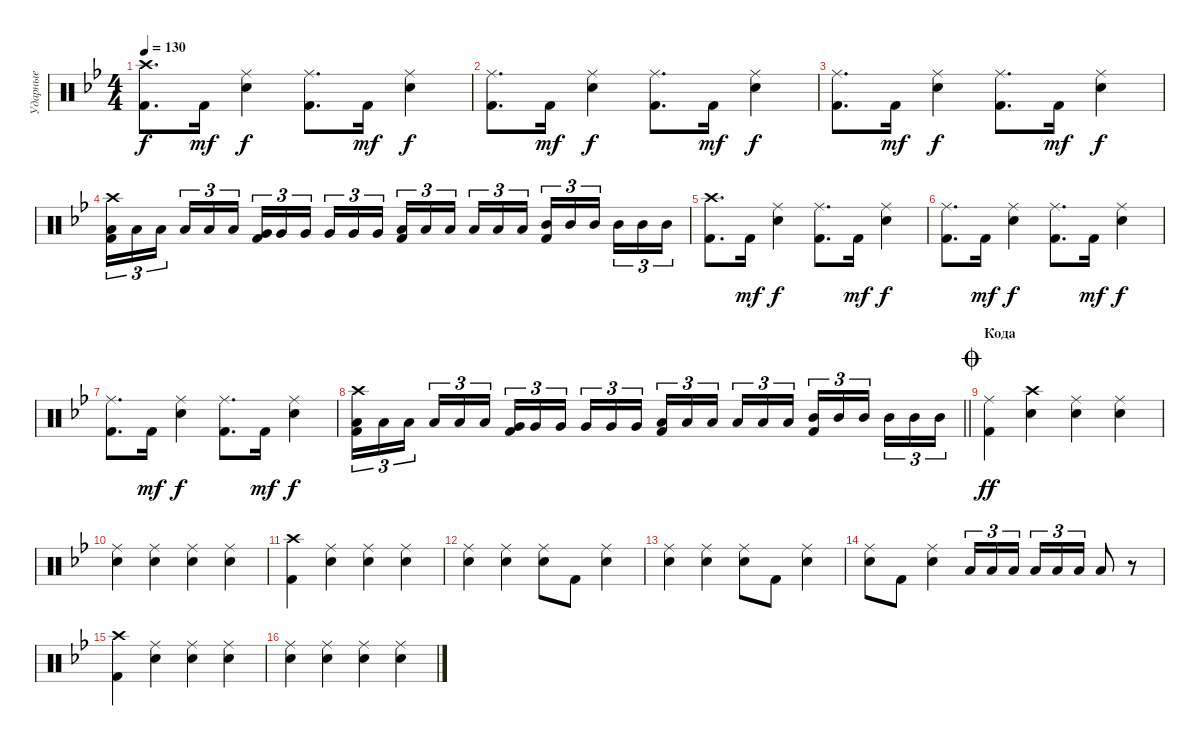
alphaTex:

\track ("Ударные" "Ударные") {instrument percussion}
\staff {score}
\articulation defaults
\ts (4 4)
\tempo 130
\clef neutral
\ks gminor
("Crash high (hit)" "Kick (hit) 2").8{d dy f} "Kick (hit) 2".16{dy mf} ("Ride (middle)" "Snare (hit) 2").4{dy f} ("Ride (middle)" "Kick (hit) 2").8{d} "Kick (hit) 2".16{dy mf} ("Ride (middle)" "Snare (hit) 2").4{dy f} |
("Ride (middle)" "Kick (hit) 2").8{d} "Kick (hit) 2".16{dy mf} ("Ride (middle)" "Snare (hit) 2").4{dy f} ("Ride (middle)" "Kick (hit) 2").8{d} "Kick (hit) 2".16{dy mf} ("Ride (middle)" "Snare (hit) 2").4{dy f} |
("Ride (middle)" "Kick (hit) 2").8{d} "Kick (hit) 2".16{dy mf} ("Ride (middle)" "Snare (hit) 2").4{dy f} ("Ride (middle)" "Kick (hit) 2").8{d} "Kick (hit) 2".16{dy mf} ("Ride (middle)" "Snare (hit) 2").4{dy f} |
("Crash high (hit)" "Low Floor Tom (hit)" "Kick (hit) 2").16{tu (3 2)} "Low Floor Tom (hit)".16{tu (3 2)} "Low Floor Tom (hit)".16{tu (3 2) beam splitsecondary} "Low Floor Tom (hit)".16{tu (3 2)} "Low Floor Tom (hit)".16{tu (3 2)} "Low Floor Tom (hit)".16{tu (3 2)} ("Very Low Tom (hit)" "Kick (hit) 2").16{tu (3 2)} "Very Low Tom (hit)".16{tu (3 2)} "Very Low Tom (hit)".16{tu (3 2) beam splitsecondary} "Very Low Tom (hit)".16{tu (3 2)} "Very Low Tom (hit)".16{tu (3 2)} "Very Low Tom (hit)".16{tu (3 2)} ("Low Tom (hit)" "Kick (hit) 2").16{tu (3 2)} "Low Tom (hit)".16{tu (3 2)} "Low Tom (hit)".16{tu (3 2) beam splitsecondary} "Low Tom (hit)".16{tu (3 2)} "Low Tom (hit)".16{tu (3 2)} "Low Tom (hit)".16{tu (3 2)} ("Mid Tom (hit)" "Kick (hit) 2").16{tu (3 2)} "Mid Tom (hit)".16{tu (3 2)} "Mid Tom (hit)".16{tu (3 2) beam splitsecondary} "Mid Tom (hit)".16{tu (3 2)} "Mid Tom (hit)".16{tu (3 2)} "Mid Tom (hit)".16{tu (3 2)} |
("Crash high (hit)" "Kick (hit) 2").8{d} "Kick (hit) 2".16{dy mf} ("Ride (middle)" "Snare (hit) 2").4{dy f} ("Ride (middle)" "Kick (hit) 2").8{d} "Kick (hit) 2".16{dy mf} ("Ride (middle)" "Snare (hit) 2").4{dy f} |
("Ride (middle)" "Kick (hit) 2").8{d} "Kick (hit) 2".16{dy mf} ("Ride (middle)" "Snare (hit) 2").4{dy f} ("Ride (middle)" "Kick (hit) 2").8{d} "Kick (hit) 2".16{dy mf} ("Ride (middle)" "Snare (hit) 2").4{dy f} |
("Ride (middle)" "Kick (hit) 2").8{d} "Kick (hit) 2".16{dy mf} ("Ride (middle)" "Snare (hit) 2").4{dy f} ("Ride (middle)" "Kick (hit) 2").8{d} "Kick (hit) 2".16{dy mf} ("Ride (middle)" "Snare (hit) 2").4{dy f} |
\barLineRight lightlight
("Crash high (hit)" "Low Floor Tom (hit)" "Kick (hit) 2").16{tu (3 2)} "Low Floor Tom (hit)".16{tu (3 2)} "Low Floor Tom (hit)".16{tu (3 2) beam splitsecondary} "Low Floor Tom (hit)".16{tu (3 2)} "Low Floor Tom (hit)".16{tu (3 2)} "Low Floor Tom (hit)".16{tu (3 2)} ("Very Low Tom (hit)" "Kick (hit) 2").16{tu (3 2)} "Very Low Tom (hit)".16{tu (3 2)} "Very Low Tom (hit)".16{tu (3 2) beam splitsecondary} "Very Low Tom (hit)".16{tu (3 2)} "Very Low Tom (hit)".16{tu (3 2)} "Very Low Tom (hit)".16{tu (3 2)} ("Low Tom (hit)" "Kick (hit) 2").16{tu (3 2)} "Low Tom (hit)".16{tu (3 2)} "Low Tom (hit)".16{tu (3 2) beam splitsecondary} "Low Tom (hit)".16{tu (3 2)} "Low Tom (hit)".16{tu (3 2)} "Low Tom (hit)".16{tu (3 2)} ("Mid Tom (hit)" "Kick (hit) 2").16{tu (3 2)} "Mid Tom (hit)".16{tu (3 2)} "Mid Tom (hit)".16{tu (3 2) beam splitsecondary} "Mid Tom (hit)".16{tu (3 2)} "Mid Tom (hit)".16{tu (3 2)} "Mid Tom (hit)".16{tu (3 2)} |
\section ("" "Кода")
\jump coda
("Ride (middle)" "Kick (hit) 2").4{dy ff} ("Crash high (hit)" "Snare (hit) 2").4 ("Ride (middle)" "Snare (hit) 2").4 ("Ride (middle)" "Snare (hit) 2").4 |
("Ride (middle)" "Snare (hit) 2").4 ("Ride (middle)" "Snare (hit) 2").4 ("Ride (middle)" "Snare (hit) 2").4 ("Ride (middle)" "Snare (hit) 2").4 |
("Crash high (hit)" "Kick (hit) 2").4 ("Ride (middle)" "Snare (hit) 2").4 ("Ride (middle)" "Snare (hit) 2").4 ("Ride (middle)" "Snare (hit) 2").4 |
("Ride (middle)" "Snare (hit) 2").4 ("Ride (middle)" "Snare (hit) 2").4 ("Ride (middle)" "Snare (hit) 2").8 "Kick (hit) 2".8 ("Ride (middle)" "Snare (hit) 2").4 |
("Ride (middle)" "Snare (hit) 2").4 ("Ride (middle)" "Snare (hit) 2").4 ("Ride (middle)" "Snare (hit) 2").8 "Kick (hit) 2".8 ("Ride (middle)" "Snare (hit) 2").4 |
("Ride (middle)" "Snare (hit) 2").8 "Kick (hit) 2".8 ("Ride (middle)" "Snare (hit) 2").4 "Low Tom (hit)".16{tu (3 2)} "Low Tom (hit)".16{tu (3 2)} "Low Tom (hit)".16{tu (3 2) beam splitsecondary} "Low Tom (hit)".16{tu (3 2)} "Low Tom (hit)".16{tu (3 2)} "Low Tom (hit)".16{tu (3 2)} "Low Tom (hit)".8 r.8 |
("Crash high (hit)" "Kick (hit) 2").4 ("Ride (middle)" "Snare (hit) 2").4 ("Ride (middle)" "Snare (hit) 2").4 ("Ride (middle)" "Snare (hit) 2").4 |
("Ride (middle)" "Snare (hit) 2").4 ("Ride (middle)" "Snare (hit) 2").4 ("Ride (middle)" "Snare (hit) 2").4 ("Ride (middle)" "Snare (hit) 2").4
